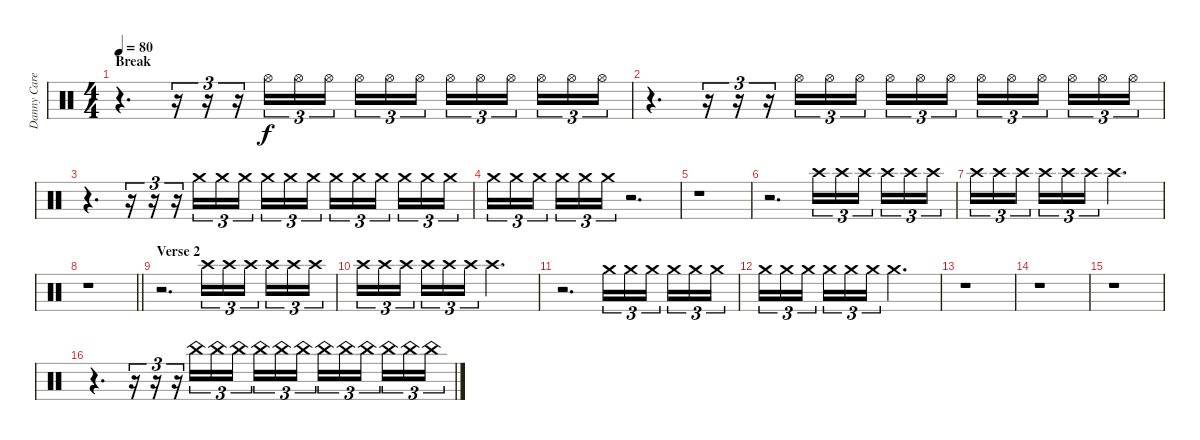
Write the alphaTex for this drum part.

\track ("Danny Carey - Percussion" "Danny Care") {instrument percussion}
\staff {score}
\articulation defaults
\ts (4 4)
\section ("" "Break")
\tempo 80
\clef neutral
\ks c
r.4{d dy f} r.16{tu (3 2)} r.16{tu (3 2)} r.16{tu (3 2) volume 0} "Hi-Hat (open)".16{tu (3 2) volume 10} "Hi-Hat (open)".16{tu (3 2)} "Hi-Hat (open)".16{tu (3 2) beam splitsecondary} "Hi-Hat (open)".16{tu (3 2)} "Hi-Hat (open)".16{tu (3 2)} "Hi-Hat (open)".16{tu (3 2)} "Hi-Hat (open)".16{tu (3 2)} "Hi-Hat (open)".16{tu (3 2)} "Hi-Hat (open)".16{tu (3 2) beam splitsecondary} "Hi-Hat (open)".16{tu (3 2)} "Hi-Hat (open)".16{tu (3 2)} "Hi-Hat (open)".16{tu (3 2)} |
r.4{d} r.16{tu (3 2)} r.16{tu (3 2)} r.16{tu (3 2) volume 0} "Hi-Hat (open)".16{tu (3 2) volume 10} "Hi-Hat (open)".16{tu (3 2)} "Hi-Hat (open)".16{tu (3 2) beam splitsecondary} "Hi-Hat (open)".16{tu (3 2)} "Hi-Hat (open)".16{tu (3 2)} "Hi-Hat (open)".16{tu (3 2)} "Hi-Hat (open)".16{tu (3 2)} "Hi-Hat (open)".16{tu (3 2)} "Hi-Hat (open)".16{tu (3 2) beam splitsecondary} "Hi-Hat (open)".16{tu (3 2)} "Hi-Hat (open)".16{tu (3 2)} "Hi-Hat (open)".16{tu (3 2)} |
r.4{d} r.16{tu (3 2)} r.16{tu (3 2)} r.16{tu (3 2) volume 0} "Crash medium (hit)".16{tu (3 2) volume 10} "Crash medium (hit)".16{tu (3 2)} "Crash medium (hit)".16{tu (3 2) beam splitsecondary} "Crash medium (hit)".16{tu (3 2)} "Crash medium (hit)".16{tu (3 2)} "Crash medium (hit)".16{tu (3 2)} "Crash medium (hit)".16{tu (3 2)} "Crash medium (hit)".16{tu (3 2)} "Crash medium (hit)".16{tu (3 2) beam splitsecondary} "Crash medium (hit)".16{tu (3 2)} "Crash medium (hit)".16{tu (3 2)} "Crash medium (hit)".16{tu (3 2)} |
"Crash medium (hit)".16{tu (3 2)} "Crash medium (hit)".16{tu (3 2)} "Crash medium (hit)".16{tu (3 2) beam splitsecondary} "Crash medium (hit)".16{tu (3 2)} "Crash medium (hit)".16{tu (3 2)} "Crash medium (hit)".16{tu (3 2)} r.2{d} |
r.1 |
r.2{d volume 0} "Crash high (hit)".16{tu (3 2) volume 10} "Crash high (hit)".16{tu (3 2)} "Crash high (hit)".16{tu (3 2) beam splitsecondary} "Crash high (hit)".16{tu (3 2)} "Crash high (hit)".16{tu (3 2)} "Crash high (hit)".16{tu (3 2)} |
"Crash high (hit)".16{tu (3 2)} "Crash high (hit)".16{tu (3 2)} "Crash high (hit)".16{tu (3 2) beam splitsecondary} "Crash high (hit)".16{tu (3 2)} "Crash high (hit)".16{tu (3 2)} "Crash high (hit)".16{tu (3 2)} "Crash high (hit)".2{d} |
\barLineRight lightlight
r.1 |
\section ("" "Verse 2")
r.2{d volume 0} "Crash high (hit)".16{tu (3 2) volume 10} "Crash high (hit)".16{tu (3 2)} "Crash high (hit)".16{tu (3 2) beam splitsecondary} "Crash high (hit)".16{tu (3 2)} "Crash high (hit)".16{tu (3 2)} "Crash high (hit)".16{tu (3 2)} |
"Crash high (hit)".16{tu (3 2)} "Crash high (hit)".16{tu (3 2)} "Crash high (hit)".16{tu (3 2) beam splitsecondary} "Crash high (hit)".16{tu (3 2)} "Crash high (hit)".16{tu (3 2)} "Crash high (hit)".16{tu (3 2)} "Crash high (hit)".2{d} |
r.2{d volume 0} "Crash medium (hit)".16{tu (3 2) volume 10} "Crash medium (hit)".16{tu (3 2)} "Crash medium (hit)".16{tu (3 2) beam splitsecondary} "Crash medium (hit)".16{tu (3 2)} "Crash medium (hit)".16{tu (3 2)} "Crash medium (hit)".16{tu (3 2)} |
"Crash medium (hit)".16{tu (3 2)} "Crash medium (hit)".16{tu (3 2)} "Crash medium (hit)".16{tu (3 2) beam splitsecondary} "Crash medium (hit)".16{tu (3 2)} "Crash medium (hit)".16{tu (3 2)} "Crash medium (hit)".16{tu (3 2)} "Crash medium (hit)".2{d} |
r.1 |
r.1 |
r.1 |
r.4{d} r.16{tu (3 2)} r.16{tu (3 2)} r.16{tu (3 2) volume 0} "China (hit)".16{tu (3 2) volume 10} "China (hit)".16{tu (3 2)} "China (hit)".16{tu (3 2) beam splitsecondary} "China (hit)".16{tu (3 2)} "China (hit)".16{tu (3 2)} "China (hit)".16{tu (3 2)} "China (hit)".16{tu (3 2)} "China (hit)".16{tu (3 2)} "China (hit)".16{tu (3 2) beam splitsecondary} "China (hit)".16{tu (3 2)} "China (hit)".16{tu (3 2)} "China (hit)".16{tu (3 2)}
